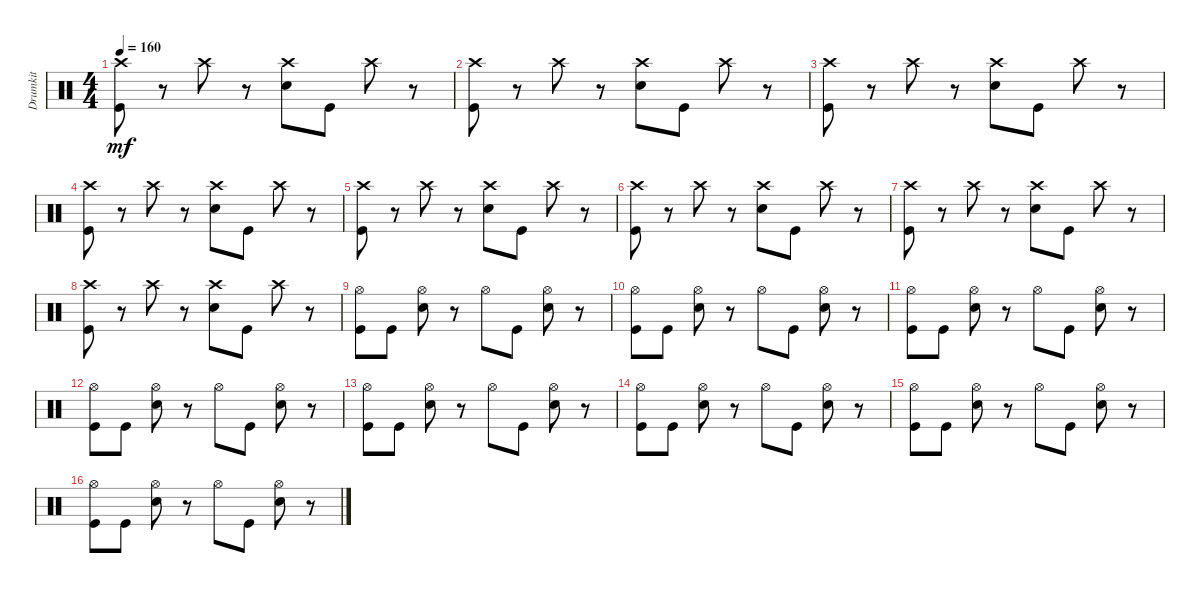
\track ("Drumkit" "Drumkit") {instrument percussion}
\staff {score}
\articulation defaults
\ts (4 4)
\tempo 160
\clef neutral
\ks c
("Crash high (hit)" "Kick (hit)").8{dy mf} r.8 "Crash high (hit)".8 r.8 ("Crash high (hit)" "Snare (hit) 2").8 "Kick (hit)".8 "Crash high (hit)".8 r.8 |
("Crash high (hit)" "Kick (hit)").8 r.8 "Crash high (hit)".8 r.8 ("Crash high (hit)" "Snare (hit) 2").8 "Kick (hit)".8 "Crash high (hit)".8 r.8 |
("Crash high (hit)" "Kick (hit)").8 r.8 "Crash high (hit)".8 r.8 ("Crash high (hit)" "Snare (hit) 2").8 "Kick (hit)".8 "Crash high (hit)".8 r.8 |
("Crash high (hit)" "Kick (hit)").8 r.8 "Crash high (hit)".8 r.8 ("Crash high (hit)" "Snare (hit) 2").8 "Kick (hit)".8 "Crash high (hit)".8 r.8 |
("Crash high (hit)" "Kick (hit)").8 r.8 "Crash high (hit)".8 r.8 ("Crash high (hit)" "Snare (hit) 2").8 "Kick (hit)".8 "Crash high (hit)".8 r.8 |
("Crash high (hit)" "Kick (hit)").8 r.8 "Crash high (hit)".8 r.8 ("Crash high (hit)" "Snare (hit) 2").8 "Kick (hit)".8 "Crash high (hit)".8 r.8 |
("Crash high (hit)" "Kick (hit)").8 r.8 "Crash high (hit)".8 r.8 ("Crash high (hit)" "Snare (hit) 2").8 "Kick (hit)".8 "Crash high (hit)".8 r.8 |
("Crash high (hit)" "Kick (hit)").8 r.8 "Crash high (hit)".8 r.8 ("Crash high (hit)" "Snare (hit) 2").8 "Kick (hit)".8 "Crash high (hit)".8 r.8 |
("Kick (hit)" "Hi-Hat (open)").8 "Kick (hit)".8 ("Snare (hit) 2" "Hi-Hat (open)").8 r.8 "Hi-Hat (open)".8 "Kick (hit)".8 ("Snare (hit) 2" "Hi-Hat (open)").8 r.8 |
("Kick (hit)" "Hi-Hat (open)").8 "Kick (hit)".8 ("Snare (hit) 2" "Hi-Hat (open)").8 r.8 "Hi-Hat (open)".8 "Kick (hit)".8 ("Snare (hit) 2" "Hi-Hat (open)").8 r.8 |
("Kick (hit)" "Hi-Hat (open)").8 "Kick (hit)".8 ("Snare (hit) 2" "Hi-Hat (open)").8 r.8 "Hi-Hat (open)".8 "Kick (hit)".8 ("Snare (hit) 2" "Hi-Hat (open)").8 r.8 |
("Kick (hit)" "Hi-Hat (open)").8 "Kick (hit)".8 ("Snare (hit) 2" "Hi-Hat (open)").8 r.8 "Hi-Hat (open)".8 "Kick (hit)".8 ("Snare (hit) 2" "Hi-Hat (open)").8 r.8 |
("Kick (hit)" "Hi-Hat (open)").8 "Kick (hit)".8 ("Snare (hit) 2" "Hi-Hat (open)").8 r.8 "Hi-Hat (open)".8 "Kick (hit)".8 ("Snare (hit) 2" "Hi-Hat (open)").8 r.8 |
("Kick (hit)" "Hi-Hat (open)").8 "Kick (hit)".8 ("Snare (hit) 2" "Hi-Hat (open)").8 r.8 "Hi-Hat (open)".8 "Kick (hit)".8 ("Snare (hit) 2" "Hi-Hat (open)").8 r.8 |
("Kick (hit)" "Hi-Hat (open)").8 "Kick (hit)".8 ("Snare (hit) 2" "Hi-Hat (open)").8 r.8 "Hi-Hat (open)".8 "Kick (hit)".8 ("Snare (hit) 2" "Hi-Hat (open)").8 r.8 |
("Kick (hit)" "Hi-Hat (open)").8 "Kick (hit)".8 ("Snare (hit) 2" "Hi-Hat (open)").8 r.8 "Hi-Hat (open)".8 "Kick (hit)".8 ("Snare (hit) 2" "Hi-Hat (open)").8 r.8
